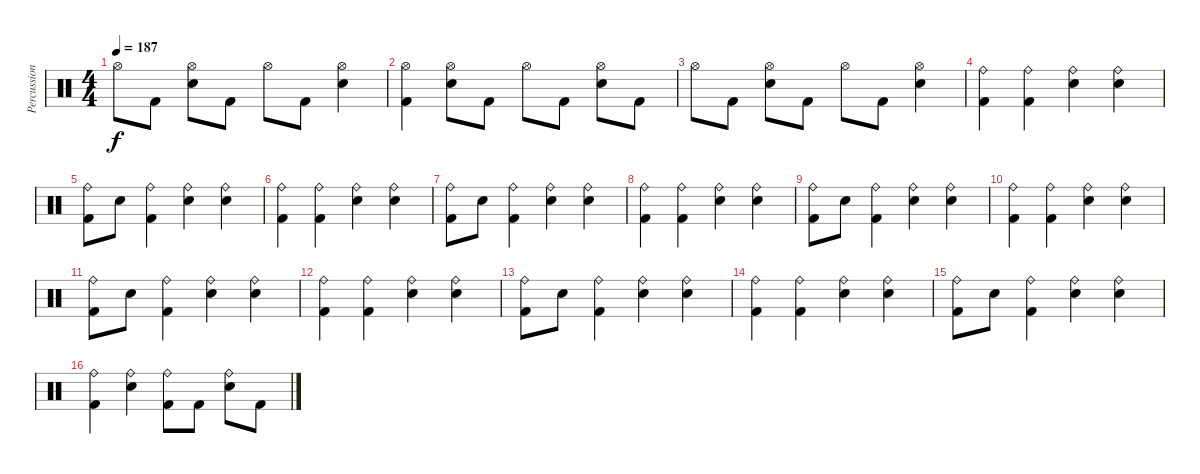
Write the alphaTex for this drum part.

\track ("Percussion" "Percussion") {instrument percussion}
\staff {score}
\articulation defaults
\ts (4 4)
\tempo 187
\clef neutral
\ks c "Hi-Hat (open)".8{dy f} "Kick (hit) 2".8
("Hi-Hat (open)" "Snare (hit) 2").8 "Kick (hit) 2".8 "Hi-Hat (open)".8 "Kick (hit) 2".8 ("Hi-Hat (open)" "Snare (hit) 2").4 |
("Hi-Hat (open)" "Kick (hit) 2").4 ("Hi-Hat (open)" "Snare (hit) 2").8 "Kick (hit) 2".8 "Hi-Hat (open)".8 "Kick (hit) 2".8 ("Hi-Hat (open)" "Snare (hit) 2").8 "Kick (hit) 2".8 |
"Hi-Hat (open)".8 "Kick (hit) 2".8 ("Hi-Hat (open)" "Snare (hit) 2").8 "Kick (hit) 2".8 "Hi-Hat (open)".8 "Kick (hit) 2".8 ("Hi-Hat (open)" "Snare (hit) 2").4 |
("Ride (bell)" "Kick (hit) 2").4 ("Ride (bell)" "Kick (hit) 2").4 ("Ride (bell)" "Snare (hit) 2").4 ("Ride (bell)" "Snare (hit) 2").4 |
("Ride (bell)" "Kick (hit) 2").8 "Snare (hit) 2".8 ("Ride (bell)" "Kick (hit) 2").4 ("Ride (bell)" "Snare (hit) 2").4 ("Ride (bell)" "Snare (hit) 2").4 |
("Ride (bell)" "Kick (hit) 2").4 ("Ride (bell)" "Kick (hit) 2").4 ("Ride (bell)" "Snare (hit) 2").4 ("Ride (bell)" "Snare (hit) 2").4 |
("Ride (bell)" "Kick (hit) 2").8 "Snare (hit) 2".8 ("Ride (bell)" "Kick (hit) 2").4 ("Ride (bell)" "Snare (hit) 2").4 ("Ride (bell)" "Snare (hit) 2").4 |
("Ride (bell)" "Kick (hit) 2").4 ("Ride (bell)" "Kick (hit) 2").4 ("Ride (bell)" "Snare (hit) 2").4 ("Ride (bell)" "Snare (hit) 2").4 |
("Ride (bell)" "Kick (hit) 2").8 "Snare (hit) 2".8 ("Ride (bell)" "Kick (hit) 2").4 ("Ride (bell)" "Snare (hit) 2").4 ("Ride (bell)" "Snare (hit) 2").4 |
("Ride (bell)" "Kick (hit) 2").4 ("Ride (bell)" "Kick (hit) 2").4 ("Ride (bell)" "Snare (hit) 2").4 ("Ride (bell)" "Snare (hit) 2").4 |
("Ride (bell)" "Kick (hit) 2").8 "Snare (hit) 2".8 ("Ride (bell)" "Kick (hit) 2").4 ("Ride (bell)" "Snare (hit) 2").4 ("Ride (bell)" "Snare (hit) 2").4 |
("Ride (bell)" "Kick (hit) 2").4 ("Ride (bell)" "Kick (hit) 2").4 ("Ride (bell)" "Snare (hit) 2").4 ("Ride (bell)" "Snare (hit) 2").4 |
("Ride (bell)" "Kick (hit) 2").8 "Snare (hit) 2".8 ("Ride (bell)" "Kick (hit) 2").4 ("Ride (bell)" "Snare (hit) 2").4 ("Ride (bell)" "Snare (hit) 2").4 |
("Ride (bell)" "Kick (hit) 2").4 ("Ride (bell)" "Kick (hit) 2").4 ("Ride (bell)" "Snare (hit) 2").4 ("Ride (bell)" "Snare (hit) 2").4 |
("Ride (bell)" "Kick (hit) 2").8 "Snare (hit) 2".8 ("Ride (bell)" "Kick (hit) 2").4 ("Ride (bell)" "Snare (hit) 2").4 ("Ride (bell)" "Snare (hit) 2").4 |
("Ride (bell)" "Kick (hit) 2").4 ("Ride (bell)" "Snare (hit) 2").4 ("Ride (bell)" "Kick (hit) 2").8 "Kick (hit) 2".8 ("Ride (bell)" "Snare (hit) 2").8 "Kick (hit) 2".8
